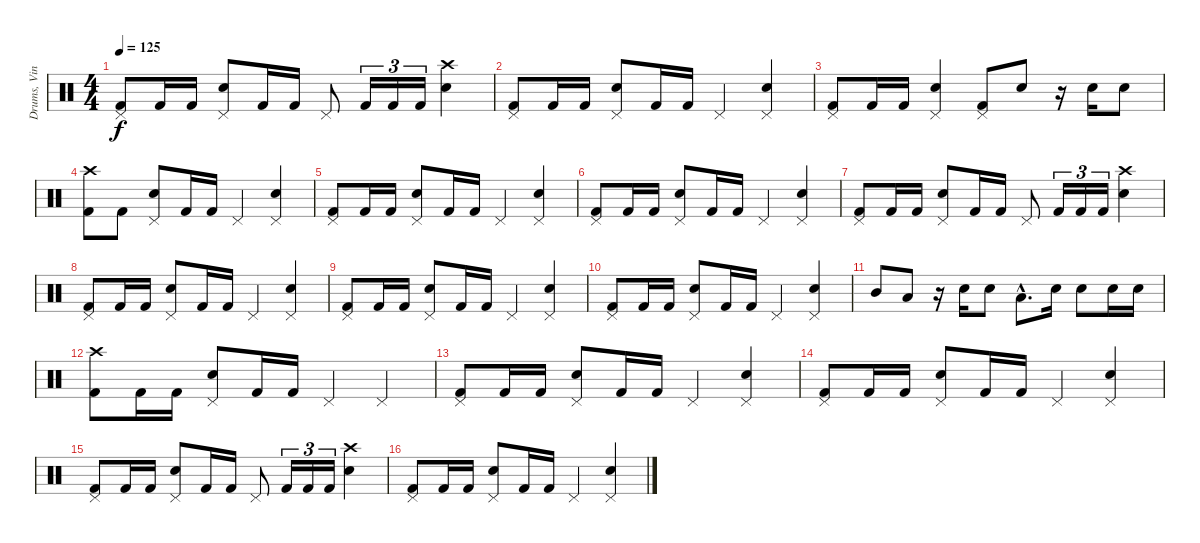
\track ("Drums, Vinnie" "Drums, Vin") {instrument percussion}
\staff {score}
\articulation defaults
\ts (4 4)
\tempo 125
\clef neutral
\ks c
("Pedal Hi-Hat (hit)" "Kick (hit) 2").8{dy f} "Kick (hit) 2".16 "Kick (hit) 2".16 ("Pedal Hi-Hat (hit)" "Electric Snare (hit)").8 "Kick (hit) 2".16 "Kick (hit) 2".16 "Pedal Hi-Hat (hit)".8 "Kick (hit) 2".16{tu (3 2)} "Kick (hit) 2".16{tu (3 2)} "Kick (hit) 2".16{tu (3 2)} ("Crash high (hit)" "Electric Snare (hit)").4 |
("Pedal Hi-Hat (hit)" "Kick (hit) 2").8 "Kick (hit) 2".16 "Kick (hit) 2".16 ("Pedal Hi-Hat (hit)" "Electric Snare (hit)").8 "Kick (hit) 2".16 "Kick (hit) 2".16 "Pedal Hi-Hat (hit)".4 ("Pedal Hi-Hat (hit)" "Electric Snare (hit)").4 |
("Pedal Hi-Hat (hit)" "Kick (hit) 2").8 "Kick (hit) 2".16 "Kick (hit) 2".16 ("Pedal Hi-Hat (hit)" "Electric Snare (hit)").4 ("Pedal Hi-Hat (hit)" "Kick (hit) 2").8 "Electric Snare (hit)".8 r.16 "Electric Snare (hit)".16 "Electric Snare (hit)".8 |
("Crash high (hit)" "Kick (hit) 2").8 "Kick (hit) 2".8 ("Pedal Hi-Hat (hit)" "Electric Snare (hit)").8 "Kick (hit) 2".16 "Kick (hit) 2".16 "Pedal Hi-Hat (hit)".4 ("Pedal Hi-Hat (hit)" "Electric Snare (hit)").4 |
("Pedal Hi-Hat (hit)" "Kick (hit) 2").8 "Kick (hit) 2".16 "Kick (hit) 2".16 ("Pedal Hi-Hat (hit)" "Electric Snare (hit)").8 "Kick (hit) 2".16 "Kick (hit) 2".16 "Pedal Hi-Hat (hit)".4 ("Pedal Hi-Hat (hit)" "Electric Snare (hit)").4 |
("Pedal Hi-Hat (hit)" "Kick (hit) 2").8 "Kick (hit) 2".16 "Kick (hit) 2".16 ("Pedal Hi-Hat (hit)" "Electric Snare (hit)").8 "Kick (hit) 2".16 "Kick (hit) 2".16 "Pedal Hi-Hat (hit)".4 ("Pedal Hi-Hat (hit)" "Electric Snare (hit)").4 |
("Pedal Hi-Hat (hit)" "Kick (hit) 2").8 "Kick (hit) 2".16 "Kick (hit) 2".16 ("Pedal Hi-Hat (hit)" "Electric Snare (hit)").8 "Kick (hit) 2".16 "Kick (hit) 2".16 "Pedal Hi-Hat (hit)".8 "Kick (hit) 2".16{tu (3 2)} "Kick (hit) 2".16{tu (3 2)} "Kick (hit) 2".16{tu (3 2)} ("Crash high (hit)" "Electric Snare (hit)").4 |
("Pedal Hi-Hat (hit)" "Kick (hit) 2").8 "Kick (hit) 2".16 "Kick (hit) 2".16 ("Pedal Hi-Hat (hit)" "Electric Snare (hit)").8 "Kick (hit) 2".16 "Kick (hit) 2".16 "Pedal Hi-Hat (hit)".4 ("Pedal Hi-Hat (hit)" "Electric Snare (hit)").4 |
("Pedal Hi-Hat (hit)" "Kick (hit) 2").8 "Kick (hit) 2".16 "Kick (hit) 2".16 ("Pedal Hi-Hat (hit)" "Electric Snare (hit)").8 "Kick (hit) 2".16 "Kick (hit) 2".16 "Pedal Hi-Hat (hit)".4 ("Pedal Hi-Hat (hit)" "Electric Snare (hit)").4 |
("Pedal Hi-Hat (hit)" "Kick (hit) 2").8 "Kick (hit) 2".16 "Kick (hit) 2".16 ("Pedal Hi-Hat (hit)" "Electric Snare (hit)").8 "Kick (hit) 2".16 "Kick (hit) 2".16 "Pedal Hi-Hat (hit)".4 ("Pedal Hi-Hat (hit)" "Electric Snare (hit)").4 |
"Mid Tom (hit)".8 "Low Tom (hit)".8 r.16 "Electric Snare (hit)".16 "Electric Snare (hit)".8 "Low Tom (hit)"{hac}.8{d} "Electric Snare (hit)".16 "Electric Snare (hit)".8 "Electric Snare (hit)".16 "Electric Snare (hit)".16 |
("Crash high (hit)" "Kick (hit) 2").8 "Kick (hit) 2".16 "Kick (hit) 2".16 ("Pedal Hi-Hat (hit)" "Electric Snare (hit)").8 "Kick (hit) 2".16 "Kick (hit) 2".16 "Pedal Hi-Hat (hit)".4 "Pedal Hi-Hat (hit)".4 |
("Pedal Hi-Hat (hit)" "Kick (hit) 2").8 "Kick (hit) 2".16 "Kick (hit) 2".16 ("Pedal Hi-Hat (hit)" "Electric Snare (hit)").8 "Kick (hit) 2".16 "Kick (hit) 2".16 "Pedal Hi-Hat (hit)".4 ("Pedal Hi-Hat (hit)" "Electric Snare (hit)").4 |
("Pedal Hi-Hat (hit)" "Kick (hit) 2").8 "Kick (hit) 2".16 "Kick (hit) 2".16 ("Pedal Hi-Hat (hit)" "Electric Snare (hit)").8 "Kick (hit) 2".16 "Kick (hit) 2".16 "Pedal Hi-Hat (hit)".4 ("Pedal Hi-Hat (hit)" "Electric Snare (hit)").4 |
("Pedal Hi-Hat (hit)" "Kick (hit) 2").8 "Kick (hit) 2".16 "Kick (hit) 2".16 ("Pedal Hi-Hat (hit)" "Electric Snare (hit)").8 "Kick (hit) 2".16 "Kick (hit) 2".16 "Pedal Hi-Hat (hit)".8 "Kick (hit) 2".16{tu (3 2)} "Kick (hit) 2".16{tu (3 2)} "Kick (hit) 2".16{tu (3 2)} ("Crash high (hit)" "Electric Snare (hit)").4 |
("Pedal Hi-Hat (hit)" "Kick (hit) 2").8 "Kick (hit) 2".16 "Kick (hit) 2".16 ("Pedal Hi-Hat (hit)" "Electric Snare (hit)").8 "Kick (hit) 2".16 "Kick (hit) 2".16 "Pedal Hi-Hat (hit)".4 ("Pedal Hi-Hat (hit)" "Electric Snare (hit)").4
